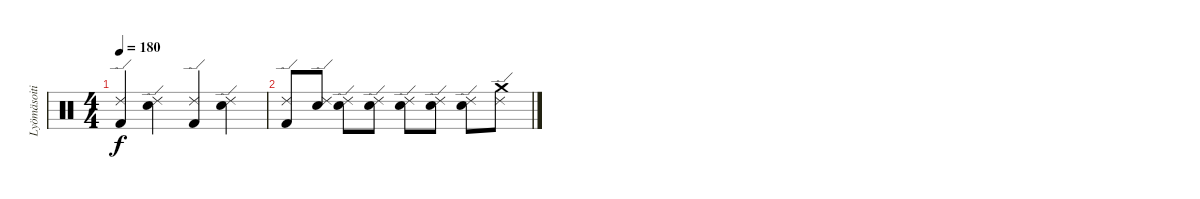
\track ("Lyömäsoitin" "Lyömäsoiti") {instrument percussion}
\staff {score}
\articulation defaults
\ts (4 4)
\tempo 180
\clef neutral
\ks c
("Ride (edge) 2" "Kick (hit) 2").4{dy f} ("Ride (edge) 2" "Snare (hit) 2").4 ("Ride (edge) 2" "Kick (hit) 2").4 ("Ride (edge) 2" "Snare (hit) 2").4 |
("Ride (edge) 2" "Kick (hit) 2").8 ("Ride (edge) 2" "Snare (hit) 2").8 ("Ride (edge) 2" "Snare (hit) 2").8 ("Ride (edge) 2" "Snare (hit) 2").8 ("Ride (edge) 2" "Snare (hit) 2").8 ("Ride (edge) 2" "Snare (hit) 2").8 ("Ride (edge) 2" "Snare (hit) 2").8 ("Ride (edge) 2" "Crash medium (hit)").8
